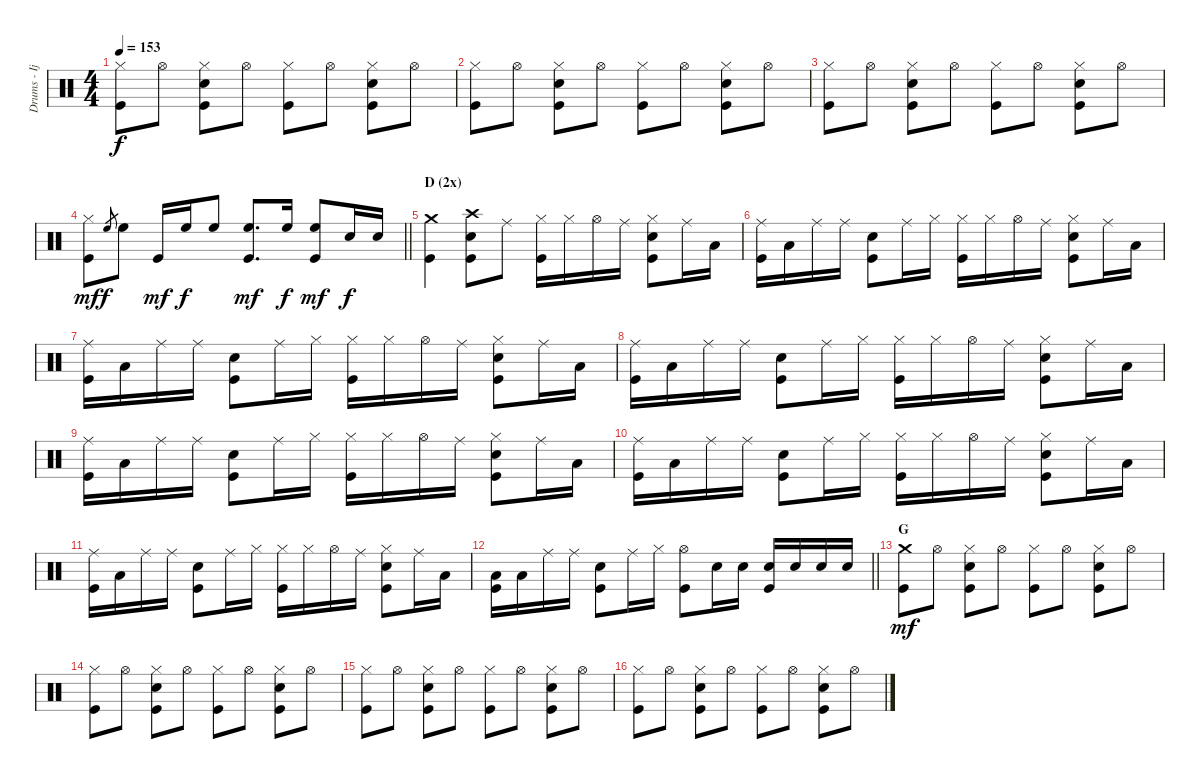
\track ("Drums - Ijichi" "Drums - Ij") {instrument percussion}
\staff {score}
\articulation defaults
\ts (4 4)
\tempo 153
\clef neutral
\ks c
("Hi-Hat (closed)" "Kick (hit)").8{dy f} "Hi-Hat (open)".8 ("Hi-Hat (closed)" "Electric Snare (hit)" "Kick (hit)").8 "Hi-Hat (open)".8 ("Hi-Hat (closed)" "Kick (hit)").8 "Hi-Hat (open)".8 ("Hi-Hat (closed)" "Electric Snare (hit)" "Kick (hit)").8 "Hi-Hat (open)".8 |
("Hi-Hat (closed)" "Kick (hit)").8 "Hi-Hat (open)".8 ("Hi-Hat (closed)" "Electric Snare (hit)" "Kick (hit)").8 "Hi-Hat (open)".8 ("Hi-Hat (closed)" "Kick (hit)").8 "Hi-Hat (open)".8 ("Hi-Hat (closed)" "Electric Snare (hit)" "Kick (hit)").8 "Hi-Hat (open)".8 |
("Hi-Hat (closed)" "Kick (hit)").8 "Hi-Hat (open)".8 ("Hi-Hat (closed)" "Electric Snare (hit)" "Kick (hit)").8 "Hi-Hat (open)".8 ("Hi-Hat (closed)" "Kick (hit)").8 "Hi-Hat (open)".8 ("Hi-Hat (closed)" "Electric Snare (hit)" "Kick (hit)").8 "Hi-Hat (open)".8 |
\barLineRight lightlight
("Hi-Hat (closed)" "Kick (hit)").8{dy mf} "High Floor Tom (hit)".8{gr dy f} "High Floor Tom (hit)".8 "Kick (hit)".16{dy mf} "High Floor Tom (hit)".16{dy f} "High Floor Tom (hit)".8 ("High Floor Tom (hit)" "Kick (hit)").8{d dy mf} "High Floor Tom (hit)".16{dy f} ("High Floor Tom (hit)" "Kick (hit)").8{dy mf} "Electric Snare (hit)".16{dy f} "Electric Snare (hit)".16 |
\section ("" "D (2x)")
("Crash medium (hit)" "Kick (hit)").4 ("Crash high (hit)" "Electric Snare (hit)" "Kick (hit)").8 "Ride (middle)".8 ("Hi-Hat (closed)" "Kick (hit)").16 "Hi-Hat (closed)".16 "Hi-Hat (open)".16 "Ride (middle)".16 ("Hi-Hat (closed)" "Electric Snare (hit)" "Kick (hit)").8 "Ride (middle)".16 "Low Tom (hit)".16 |
("Ride (middle)" "Kick (hit)").16 "Low Tom (hit)".16 "Ride (middle)".16 "Ride (middle)".16 ("Electric Snare (hit)" "Kick (hit)").8 "Ride (middle)".16 "Hi-Hat (closed)".16 ("Hi-Hat (closed)" "Kick (hit)").16 "Hi-Hat (closed)".16 "Hi-Hat (open)".16 "Ride (middle)".16 ("Hi-Hat (closed)" "Electric Snare (hit)" "Kick (hit)").8 "Ride (middle)".16 "Low Tom (hit)".16 |
("Ride (middle)" "Kick (hit)").16 "Low Tom (hit)".16 "Ride (middle)".16 "Ride (middle)".16 ("Electric Snare (hit)" "Kick (hit)").8 "Ride (middle)".16 "Hi-Hat (closed)".16 ("Hi-Hat (closed)" "Kick (hit)").16 "Hi-Hat (closed)".16 "Hi-Hat (open)".16 "Ride (middle)".16 ("Hi-Hat (closed)" "Electric Snare (hit)" "Kick (hit)").8 "Ride (middle)".16 "Low Tom (hit)".16 |
("Ride (middle)" "Kick (hit)").16 "Low Tom (hit)".16 "Ride (middle)".16 "Ride (middle)".16 ("Electric Snare (hit)" "Kick (hit)").8 "Ride (middle)".16 "Hi-Hat (closed)".16 ("Hi-Hat (closed)" "Kick (hit)").16 "Hi-Hat (closed)".16 "Hi-Hat (open)".16 "Ride (middle)".16 ("Hi-Hat (closed)" "Electric Snare (hit)" "Kick (hit)").8 "Ride (middle)".16 "Low Tom (hit)".16 |
("Ride (middle)" "Kick (hit)").16 "Low Tom (hit)".16 "Ride (middle)".16 "Ride (middle)".16 ("Electric Snare (hit)" "Kick (hit)").8 "Ride (middle)".16 "Hi-Hat (closed)".16 ("Hi-Hat (closed)" "Kick (hit)").16 "Hi-Hat (closed)".16 "Hi-Hat (open)".16 "Ride (middle)".16 ("Hi-Hat (closed)" "Electric Snare (hit)" "Kick (hit)").8 "Ride (middle)".16 "Low Tom (hit)".16 |
("Ride (middle)" "Kick (hit)").16 "Low Tom (hit)".16 "Ride (middle)".16 "Ride (middle)".16 ("Electric Snare (hit)" "Kick (hit)").8 "Ride (middle)".16 "Hi-Hat (closed)".16 ("Hi-Hat (closed)" "Kick (hit)").16 "Hi-Hat (closed)".16 "Hi-Hat (open)".16 "Ride (middle)".16 ("Hi-Hat (closed)" "Electric Snare (hit)" "Kick (hit)").8 "Ride (middle)".16 "Low Tom (hit)".16 |
("Ride (middle)" "Kick (hit)").16 "Low Tom (hit)".16 "Ride (middle)".16 "Ride (middle)".16 ("Electric Snare (hit)" "Kick (hit)").8 "Ride (middle)".16 "Hi-Hat (closed)".16 ("Hi-Hat (closed)" "Kick (hit)").16 "Hi-Hat (closed)".16 "Hi-Hat (open)".16 "Ride (middle)".16 ("Hi-Hat (closed)" "Electric Snare (hit)" "Kick (hit)").8 "Ride (middle)".16 "Low Tom (hit)".16 |
\barLineRight lightlight
("Low Tom (hit)" "Kick (hit)").16 "Low Tom (hit)".16 "Ride (middle)".16 "Ride (middle)".16 ("Electric Snare (hit)" "Kick (hit)").8 "Ride (middle)".16 "Hi-Hat (closed)".16 ("Hi-Hat (open)" "Kick (hit)").8 "Electric Snare (hit)".16 "Electric Snare (hit)".16 ("Electric Snare (hit)" "Kick (hit)").16 "Electric Snare (hit)".16 "Electric Snare (hit)".16 "Electric Snare (hit)".16 |
\section ("" "G")
("Crash medium (hit)" "Kick (hit)").8{dy mf} "Hi-Hat (open)".8 ("Hi-Hat (closed)" "Electric Snare (hit)" "Kick (hit)").8 "Hi-Hat (open)".8 ("Hi-Hat (closed)" "Kick (hit)").8 "Hi-Hat (open)".8 ("Hi-Hat (closed)" "Electric Snare (hit)" "Kick (hit)").8 "Hi-Hat (open)".8 |
("Hi-Hat (closed)" "Kick (hit)").8 "Hi-Hat (open)".8 ("Hi-Hat (closed)" "Electric Snare (hit)" "Kick (hit)").8 "Hi-Hat (open)".8 ("Hi-Hat (closed)" "Kick (hit)").8 "Hi-Hat (open)".8 ("Hi-Hat (closed)" "Electric Snare (hit)" "Kick (hit)").8 "Hi-Hat (open)".8 |
("Hi-Hat (closed)" "Kick (hit)").8 "Hi-Hat (open)".8 ("Hi-Hat (closed)" "Electric Snare (hit)" "Kick (hit)").8 "Hi-Hat (open)".8 ("Hi-Hat (closed)" "Kick (hit)").8 "Hi-Hat (open)".8 ("Hi-Hat (closed)" "Electric Snare (hit)" "Kick (hit)").8 "Hi-Hat (open)".8 |
("Hi-Hat (closed)" "Kick (hit)").8 "Hi-Hat (open)".8 ("Hi-Hat (closed)" "Electric Snare (hit)" "Kick (hit)").8 "Hi-Hat (open)".8 ("Hi-Hat (closed)" "Kick (hit)").8 "Hi-Hat (open)".8 ("Hi-Hat (closed)" "Electric Snare (hit)" "Kick (hit)").8 "Hi-Hat (open)".8
